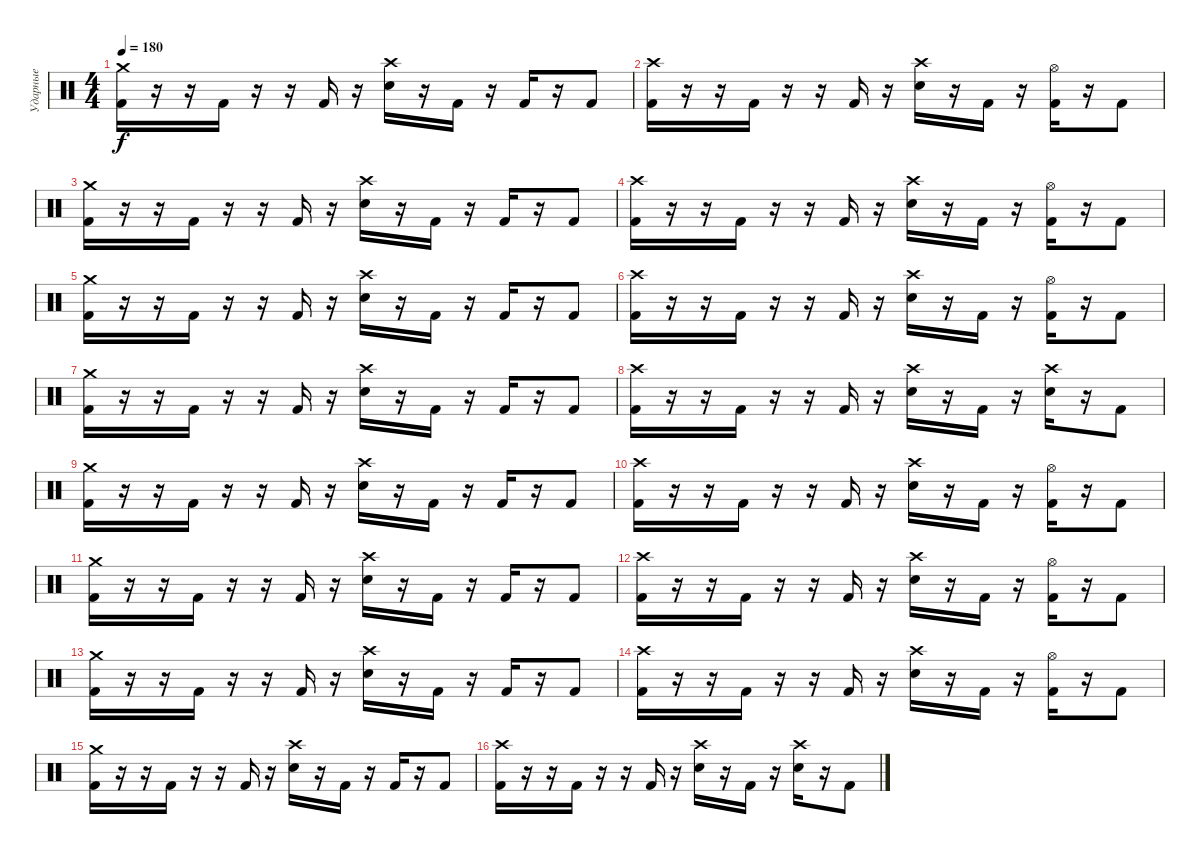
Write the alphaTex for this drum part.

\track ("Ударные" "Ударные") {instrument percussion}
\staff {score}
\articulation defaults
\ts (4 4)
\tempo 180
\clef neutral
\ks c
("Crash medium (hit)" "Kick (hit) 2").16{dy f} r.16 r.16 "Kick (hit) 2".16 r.16 r.16 "Kick (hit) 2".16 r.16 ("Crash high (hit)" "Electric Snare (hit)").16 r.16 "Kick (hit) 2".16 r.16 "Kick (hit) 2".16 r.16 "Kick (hit) 2".8 |
("Crash high (hit)" "Kick (hit) 2").16 r.16 r.16 "Kick (hit) 2".16 r.16 r.16 "Kick (hit) 2".16 r.16 ("Crash high (hit)" "Electric Snare (hit)").16 r.16 "Kick (hit) 2".16 r.16 ("Hi-Hat (open)" "Kick (hit) 2").16 r.16 "Kick (hit) 2".8 |
("Crash medium (hit)" "Kick (hit) 2").16 r.16 r.16 "Kick (hit) 2".16 r.16 r.16 "Kick (hit) 2".16 r.16 ("Crash high (hit)" "Electric Snare (hit)").16 r.16 "Kick (hit) 2".16 r.16 "Kick (hit) 2".16 r.16 "Kick (hit) 2".8 |
("Crash high (hit)" "Kick (hit) 2").16 r.16 r.16 "Kick (hit) 2".16 r.16 r.16 "Kick (hit) 2".16 r.16 ("Crash high (hit)" "Electric Snare (hit)").16 r.16 "Kick (hit) 2".16 r.16 ("Hi-Hat (open)" "Kick (hit) 2").16 r.16 "Kick (hit) 2".8 |
("Crash medium (hit)" "Kick (hit) 2").16 r.16 r.16 "Kick (hit) 2".16 r.16 r.16 "Kick (hit) 2".16 r.16 ("Crash high (hit)" "Electric Snare (hit)").16 r.16 "Kick (hit) 2".16 r.16 "Kick (hit) 2".16 r.16 "Kick (hit) 2".8 |
("Crash high (hit)" "Kick (hit) 2").16 r.16 r.16 "Kick (hit) 2".16 r.16 r.16 "Kick (hit) 2".16 r.16 ("Crash high (hit)" "Electric Snare (hit)").16 r.16 "Kick (hit) 2".16 r.16 ("Hi-Hat (open)" "Kick (hit) 2").16 r.16 "Kick (hit) 2".8 |
("Crash medium (hit)" "Kick (hit) 2").16 r.16 r.16 "Kick (hit) 2".16 r.16 r.16 "Kick (hit) 2".16 r.16 ("Crash high (hit)" "Electric Snare (hit)").16 r.16 "Kick (hit) 2".16 r.16 "Kick (hit) 2".16 r.16 "Kick (hit) 2".8 |
("Crash high (hit)" "Kick (hit) 2").16 r.16 r.16 "Kick (hit) 2".16 r.16 r.16 "Kick (hit) 2".16 r.16 ("Crash high (hit)" "Electric Snare (hit)").16 r.16 "Kick (hit) 2".16 r.16 ("Crash high (hit)" "Electric Snare (hit)").16 r.16 "Kick (hit) 2".8 |
("Crash medium (hit)" "Kick (hit) 2").16 r.16 r.16 "Kick (hit) 2".16 r.16 r.16 "Kick (hit) 2".16 r.16 ("Crash high (hit)" "Electric Snare (hit)").16 r.16 "Kick (hit) 2".16 r.16 "Kick (hit) 2".16 r.16 "Kick (hit) 2".8 |
("Crash high (hit)" "Kick (hit) 2").16 r.16 r.16 "Kick (hit) 2".16 r.16 r.16 "Kick (hit) 2".16 r.16 ("Crash high (hit)" "Electric Snare (hit)").16 r.16 "Kick (hit) 2".16 r.16 ("Hi-Hat (open)" "Kick (hit) 2").16 r.16 "Kick (hit) 2".8 |
("Crash medium (hit)" "Kick (hit) 2").16 r.16 r.16 "Kick (hit) 2".16 r.16 r.16 "Kick (hit) 2".16 r.16 ("Crash high (hit)" "Electric Snare (hit)").16 r.16 "Kick (hit) 2".16 r.16 "Kick (hit) 2".16 r.16 "Kick (hit) 2".8 |
("Crash high (hit)" "Kick (hit) 2").16 r.16 r.16 "Kick (hit) 2".16 r.16 r.16 "Kick (hit) 2".16 r.16 ("Crash high (hit)" "Electric Snare (hit)").16 r.16 "Kick (hit) 2".16 r.16 ("Hi-Hat (open)" "Kick (hit) 2").16 r.16 "Kick (hit) 2".8 |
("Crash medium (hit)" "Kick (hit) 2").16 r.16 r.16 "Kick (hit) 2".16 r.16 r.16 "Kick (hit) 2".16 r.16 ("Crash high (hit)" "Electric Snare (hit)").16 r.16 "Kick (hit) 2".16 r.16 "Kick (hit) 2".16 r.16 "Kick (hit) 2".8 |
("Crash high (hit)" "Kick (hit) 2").16 r.16 r.16 "Kick (hit) 2".16 r.16 r.16 "Kick (hit) 2".16 r.16 ("Crash high (hit)" "Electric Snare (hit)").16 r.16 "Kick (hit) 2".16 r.16 ("Hi-Hat (open)" "Kick (hit) 2").16 r.16 "Kick (hit) 2".8 |
("Crash medium (hit)" "Kick (hit) 2").16 r.16 r.16 "Kick (hit) 2".16 r.16 r.16 "Kick (hit) 2".16 r.16 ("Crash high (hit)" "Electric Snare (hit)").16 r.16 "Kick (hit) 2".16 r.16 "Kick (hit) 2".16 r.16 "Kick (hit) 2".8 |
("Crash high (hit)" "Kick (hit) 2").16 r.16 r.16 "Kick (hit) 2".16 r.16 r.16 "Kick (hit) 2".16 r.16 ("Crash high (hit)" "Electric Snare (hit)").16 r.16 "Kick (hit) 2".16 r.16 ("Crash high (hit)" "Electric Snare (hit)").16 r.16 "Kick (hit) 2".8
